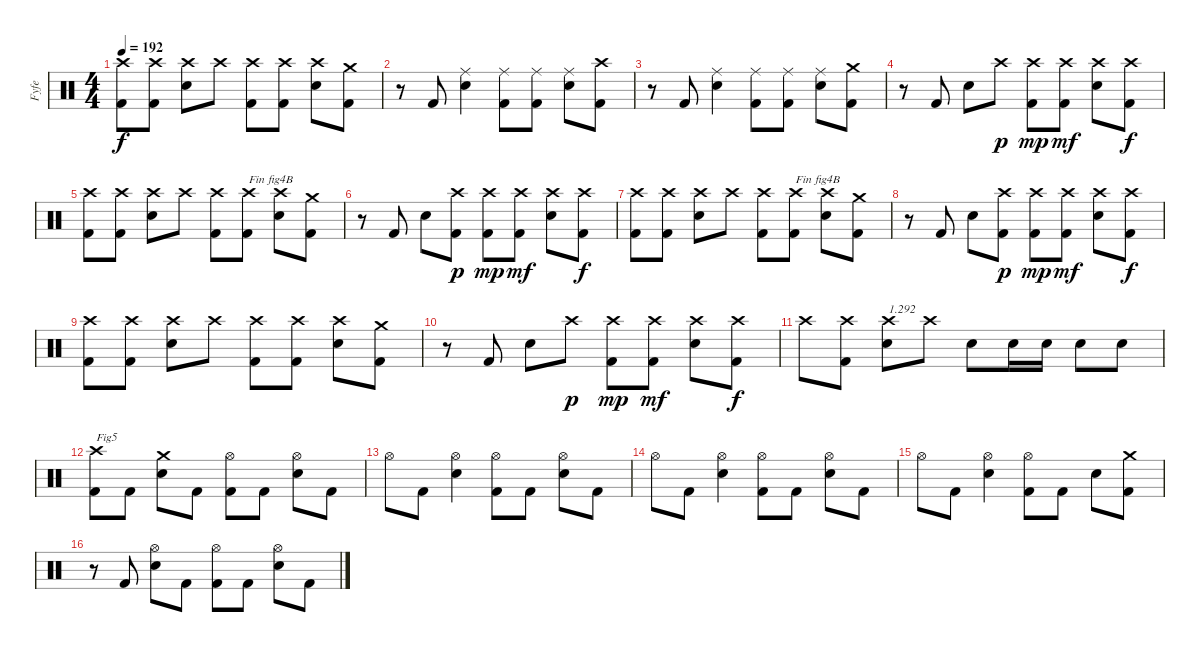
\track ("Fyfe" "Fyfe") {instrument percussion}
\staff {score}
\articulation defaults
\ts (4 4)
\tempo 192
\clef neutral
\ks c
("Kick (hit) 2" "Crash high (hit)").8{dy f} ("Kick (hit) 2" "Crash high (hit)").8 ("Electric Snare (hit)" "Crash high (hit)").8 "Crash high (hit)".8 ("Kick (hit) 2" "Crash high (hit)").8 ("Kick (hit) 2" "Crash high (hit)").8 ("Electric Snare (hit)" "Crash high (hit)").8 ("Kick (hit) 2" "Crash medium (hit)").8 |
r.8 "Kick (hit) 2".8 ("Electric Snare (hit)" "Ride (middle)").4 ("Kick (hit) 2" "Ride (middle)").8 ("Kick (hit) 2" "Ride (middle)").8 ("Electric Snare (hit)" "Ride (middle)").8 ("Kick (hit) 2" "Crash high (hit)").8 |
r.8 "Kick (hit) 2".8 ("Electric Snare (hit)" "Ride (middle)").4 ("Kick (hit) 2" "Ride (middle)").8 ("Kick (hit) 2" "Ride (middle)").8 ("Electric Snare (hit)" "Ride (middle)").8 ("Kick (hit) 2" "Crash medium (hit)").8 |
r.8 "Kick (hit) 2".8 "Electric Snare (hit)".8 "Crash high (hit)".8{dy p} ("Kick (hit) 2" "Crash high (hit)").8{dy mp} ("Kick (hit) 2" "Crash high (hit)").8{dy mf} ("Electric Snare (hit)" "Crash high (hit)").8 ("Kick (hit) 2" "Crash high (hit)").8{dy f} |
("Kick (hit) 2" "Crash high (hit)").8 ("Kick (hit) 2" "Crash high (hit)").8 ("Electric Snare (hit)" "Crash high (hit)").8 "Crash high (hit)".8 ("Kick (hit) 2" "Crash high (hit)").8 ("Kick (hit) 2" "Crash high (hit)").8{txt "Fin fig4B"} ("Electric Snare (hit)" "Crash high (hit)").8 ("Kick (hit) 2" "Crash medium (hit)").8 |
r.8 "Kick (hit) 2".8 "Electric Snare (hit)".8 ("Kick (hit) 2" "Crash high (hit)").8{dy p} ("Kick (hit) 2" "Crash high (hit)").8{dy mp} ("Kick (hit) 2" "Crash high (hit)").8{dy mf} ("Electric Snare (hit)" "Crash high (hit)").8 ("Kick (hit) 2" "Crash high (hit)").8{dy f} |
("Kick (hit) 2" "Crash high (hit)").8 ("Kick (hit) 2" "Crash high (hit)").8 ("Electric Snare (hit)" "Crash high (hit)").8 "Crash high (hit)".8 ("Kick (hit) 2" "Crash high (hit)").8 ("Kick (hit) 2" "Crash high (hit)").8{txt "Fin fig4B"} ("Electric Snare (hit)" "Crash high (hit)").8 ("Kick (hit) 2" "Crash medium (hit)").8 |
r.8 "Kick (hit) 2".8 "Electric Snare (hit)".8 ("Kick (hit) 2" "Crash high (hit)").8{dy p} ("Kick (hit) 2" "Crash high (hit)").8{dy mp} ("Kick (hit) 2" "Crash high (hit)").8{dy mf} ("Electric Snare (hit)" "Crash high (hit)").8 ("Kick (hit) 2" "Crash high (hit)").8{dy f} |
("Kick (hit) 2" "Crash high (hit)").8 ("Kick (hit) 2" "Crash high (hit)").8 ("Electric Snare (hit)" "Crash high (hit)").8 "Crash high (hit)".8 ("Kick (hit) 2" "Crash high (hit)").8 ("Kick (hit) 2" "Crash high (hit)").8 ("Electric Snare (hit)" "Crash high (hit)").8 ("Kick (hit) 2" "Crash medium (hit)").8 |
r.8 "Kick (hit) 2".8 "Electric Snare (hit)".8 "Crash high (hit)".8{dy p} ("Kick (hit) 2" "Crash high (hit)").8{dy mp} ("Kick (hit) 2" "Crash high (hit)").8{dy mf} ("Electric Snare (hit)" "Crash high (hit)").8 ("Kick (hit) 2" "Crash high (hit)").8{dy f} |
"Crash high (hit)".8 ("Kick (hit) 2" "Crash high (hit)").8 ("Electric Snare (hit)" "Crash high (hit)").8{txt "1.292"} "Crash high (hit)".8 "Snare (hit) 2".8 "Snare (hit) 2".16 "Snare (hit) 2".16 "Snare (hit) 2".8 "Snare (hit) 2".8 |
("Kick (hit) 2" "Crash high (hit)").8{txt "Fig5"} "Kick (hit) 2".8 ("Electric Snare (hit)" "Crash medium (hit)").8 "Kick (hit) 2".8 ("Kick (hit) 2" "Hi-Hat (open)").8 "Kick (hit) 2".8 ("Electric Snare (hit)" "Hi-Hat (open)").8 "Kick (hit) 2".8 |
"Hi-Hat (open)".8 "Kick (hit) 2".8 ("Electric Snare (hit)" "Hi-Hat (open)").4 ("Kick (hit) 2" "Hi-Hat (open)").8 "Kick (hit) 2".8 ("Electric Snare (hit)" "Hi-Hat (open)").8 "Kick (hit) 2".8 |
"Hi-Hat (open)".8 "Kick (hit) 2".8 ("Electric Snare (hit)" "Hi-Hat (open)").4 ("Kick (hit) 2" "Hi-Hat (open)").8 "Kick (hit) 2".8 ("Electric Snare (hit)" "Hi-Hat (open)").8 "Kick (hit) 2".8 |
"Hi-Hat (open)".8 "Kick (hit) 2".8 ("Electric Snare (hit)" "Hi-Hat (open)").4 ("Kick (hit) 2" "Hi-Hat (open)").8 "Kick (hit) 2".8 "Electric Snare (hit)".8 ("Kick (hit) 2" "Crash medium (hit)").8 |
r.8 "Kick (hit) 2".8 ("Electric Snare (hit)" "Hi-Hat (open)").8 "Kick (hit) 2".8 ("Kick (hit) 2" "Hi-Hat (open)").8 "Kick (hit) 2".8 ("Electric Snare (hit)" "Hi-Hat (open)").8 "Kick (hit) 2".8
